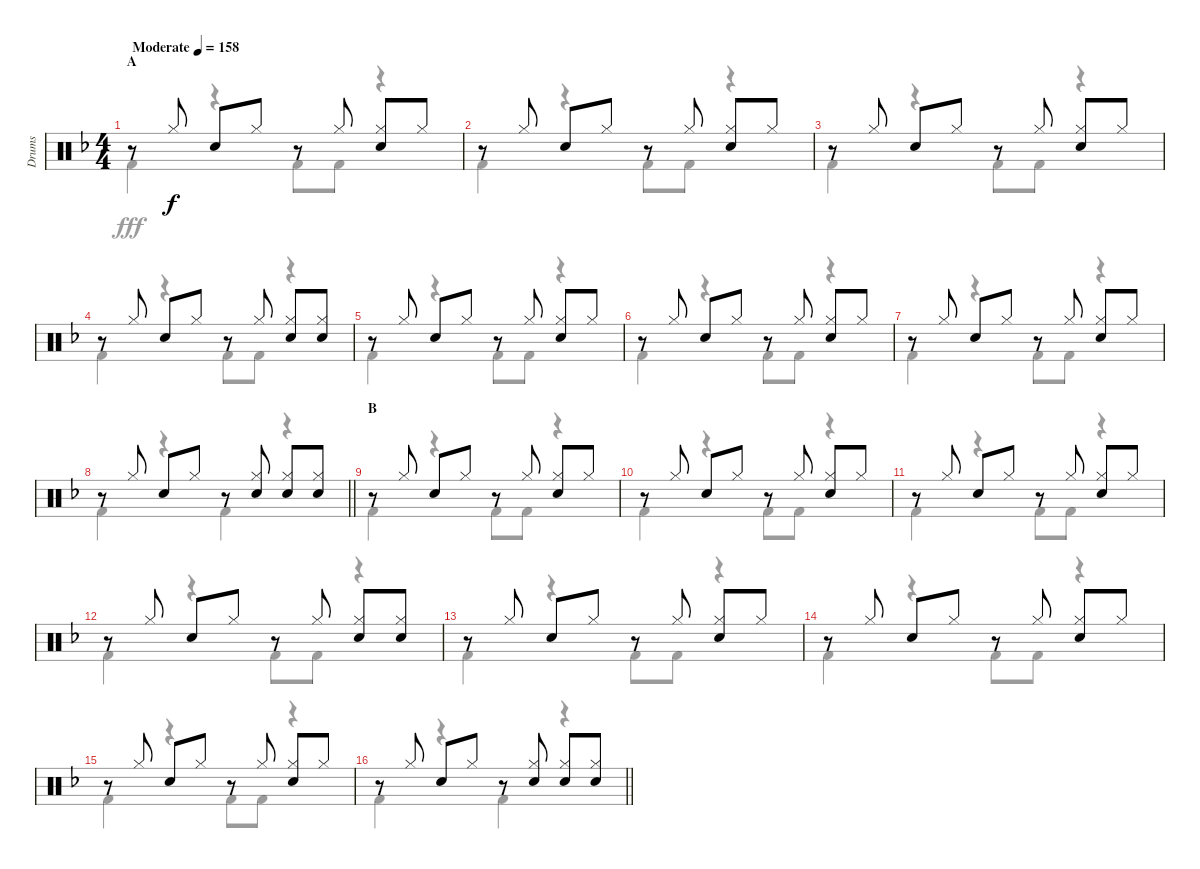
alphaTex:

\track ("Drums" "Drums") {instrument percussion}
\staff {score}
\articulation defaults
\voice
\ts (4 4)
\section ("" "A")
\tempo (158 "Moderate")
\clef neutral
\ks f
r.8{dy f} "Hi-Hat (closed)".8 "Snare (hit) 2".8 "Hi-Hat (closed)".8 r.8 "Hi-Hat (closed)".8 ("Hi-Hat (closed)" "Snare (hit) 2").8 "Hi-Hat (closed)".8 |
r.8 "Hi-Hat (closed)".8 "Snare (hit) 2".8 "Hi-Hat (closed)".8 r.8 "Hi-Hat (closed)".8 ("Hi-Hat (closed)" "Snare (hit) 2").8 "Hi-Hat (closed)".8 |
r.8 "Hi-Hat (closed)".8 "Snare (hit) 2".8 "Hi-Hat (closed)".8 r.8 "Hi-Hat (closed)".8 ("Hi-Hat (closed)" "Snare (hit) 2").8 "Hi-Hat (closed)".8 |
r.8 "Hi-Hat (closed)".8 "Snare (hit) 2".8 "Hi-Hat (closed)".8 r.8 "Hi-Hat (closed)".8 ("Hi-Hat (closed)" "Snare (hit) 2").8 ("Hi-Hat (closed)" "Snare (hit) 2").8 |
r.8 "Hi-Hat (closed)".8 "Snare (hit) 2".8 "Hi-Hat (closed)".8 r.8 "Hi-Hat (closed)".8 ("Hi-Hat (closed)" "Snare (hit) 2").8 "Hi-Hat (closed)".8 |
r.8 "Hi-Hat (closed)".8 "Snare (hit) 2".8 "Hi-Hat (closed)".8 r.8 "Hi-Hat (closed)".8 ("Hi-Hat (closed)" "Snare (hit) 2").8 "Hi-Hat (closed)".8 |
r.8 "Hi-Hat (closed)".8 "Snare (hit) 2".8 "Hi-Hat (closed)".8 r.8 "Hi-Hat (closed)".8 ("Hi-Hat (closed)" "Snare (hit) 2").8 "Hi-Hat (closed)".8 |
\barLineRight lightlight
r.8 "Hi-Hat (closed)".8 "Snare (hit) 2".8 "Hi-Hat (closed)".8 r.8 ("Hi-Hat (closed)" "Snare (hit) 2").8 ("Hi-Hat (closed)" "Snare (hit) 2").8 ("Hi-Hat (closed)" "Snare (hit) 2").8 |
\section ("" "B")
r.8 "Hi-Hat (closed)".8 "Snare (hit) 2".8 "Hi-Hat (closed)".8 r.8 "Hi-Hat (closed)".8 ("Hi-Hat (closed)" "Snare (hit) 2").8 "Hi-Hat (closed)".8 |
r.8 "Hi-Hat (closed)".8 "Snare (hit) 2".8 "Hi-Hat (closed)".8 r.8 "Hi-Hat (closed)".8 ("Hi-Hat (closed)" "Snare (hit) 2").8 "Hi-Hat (closed)".8 |
r.8 "Hi-Hat (closed)".8 "Snare (hit) 2".8 "Hi-Hat (closed)".8 r.8 "Hi-Hat (closed)".8 ("Hi-Hat (closed)" "Snare (hit) 2").8 "Hi-Hat (closed)".8 |
r.8 "Hi-Hat (closed)".8 "Snare (hit) 2".8 "Hi-Hat (closed)".8 r.8 "Hi-Hat (closed)".8 ("Hi-Hat (closed)" "Snare (hit) 2").8 ("Hi-Hat (closed)" "Snare (hit) 2").8 |
r.8 "Hi-Hat (closed)".8 "Snare (hit) 2".8 "Hi-Hat (closed)".8 r.8 "Hi-Hat (closed)".8 ("Hi-Hat (closed)" "Snare (hit) 2").8 "Hi-Hat (closed)".8 |
r.8 "Hi-Hat (closed)".8 "Snare (hit) 2".8 "Hi-Hat (closed)".8 r.8 "Hi-Hat (closed)".8 ("Hi-Hat (closed)" "Snare (hit) 2").8 "Hi-Hat (closed)".8 |
r.8 "Hi-Hat (closed)".8 "Snare (hit) 2".8 "Hi-Hat (closed)".8 r.8 "Hi-Hat (closed)".8 ("Hi-Hat (closed)" "Snare (hit) 2").8 "Hi-Hat (closed)".8 |
\barLineRight lightlight
r.8 "Hi-Hat (closed)".8 "Snare (hit) 2".8 "Hi-Hat (closed)".8 r.8 ("Hi-Hat (closed)" "Snare (hit) 2").8 ("Hi-Hat (closed)" "Snare (hit) 2").8 ("Hi-Hat (closed)" "Snare (hit) 2").8
\voice
\clef neutral
\ottava regular
\simile none
\ks f "Kick (hit) 2".4{dy fff}
r.4 "Kick (hit) 2".8 "Kick (hit) 2".8 r.4 |
"Kick (hit) 2".4 r.4 "Kick (hit) 2".8 "Kick (hit) 2".8 r.4 |
"Kick (hit) 2".4 r.4 "Kick (hit) 2".8 "Kick (hit) 2".8 r.4 |
"Kick (hit) 2".4 r.4 "Kick (hit) 2".8 "Kick (hit) 2".8 r.4 |
"Kick (hit) 2".4 r.4 "Kick (hit) 2".8 "Kick (hit) 2".8 r.4 |
"Kick (hit) 2".4 r.4 "Kick (hit) 2".8 "Kick (hit) 2".8 r.4 |
"Kick (hit) 2".4 r.4 "Kick (hit) 2".8 "Kick (hit) 2".8 r.4 |
\barLineRight lightlight "Kick (hit) 2".4
r.4 "Kick (hit) 2".4 r.4 |
"Kick (hit) 2".4 r.4 "Kick (hit) 2".8 "Kick (hit) 2".8 r.4 |
"Kick (hit) 2".4 r.4 "Kick (hit) 2".8 "Kick (hit) 2".8 r.4 |
"Kick (hit) 2".4 r.4 "Kick (hit) 2".8 "Kick (hit) 2".8 r.4 |
"Kick (hit) 2".4 r.4 "Kick (hit) 2".8 "Kick (hit) 2".8 r.4 |
"Kick (hit) 2".4 r.4 "Kick (hit) 2".8 "Kick (hit) 2".8 r.4 |
"Kick (hit) 2".4 r.4 "Kick (hit) 2".8 "Kick (hit) 2".8 r.4 |
"Kick (hit) 2".4 r.4 "Kick (hit) 2".8 "Kick (hit) 2".8 r.4 |
\barLineRight lightlight "Kick (hit) 2".4
r.4 "Kick (hit) 2".4 r.4
